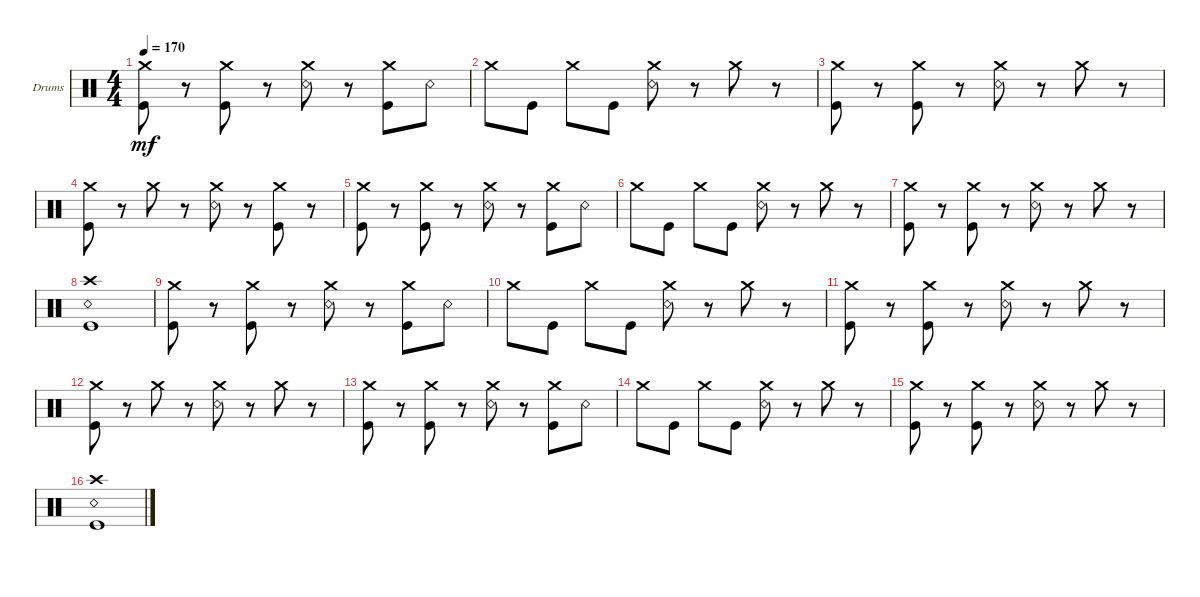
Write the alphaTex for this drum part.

\defaultSystemsLayout 4
\bracketExtendMode groupsimilarinstruments
\firstSystemTrackNameOrientation horizontal
\otherSystemsTrackNameOrientation horizontal
\track ("Drumkit" "Drums") {instrument percussion}
\staff {score}
\articulation defaults
\ts (4 4)
\tempo 170
\clef neutral
\scale
0.472222
\ks c
("Kick (hit)" "Crash medium (hit)").8{dy mf} r.8 ("Crash medium (hit)" "Kick (hit)").8 r.8 ("Snare (rim shot)" "Crash medium (hit)").8 r.8 ("Crash medium (hit)" "Kick (hit)").8 "Snare (rim shot)".8 |
\scale
0.263889 "Crash medium (hit)".8 "Kick (hit)".8 "Crash medium (hit)".8 "Kick (hit)".8 ("Snare (rim shot)" "Crash medium (hit)").8 r.8 "Crash medium (hit)".8 r.8 |
\scale
0.263889 ("Kick (hit)" "Crash medium (hit)").8 r.8 ("Crash medium (hit)" "Kick (hit)").8 r.8 ("Snare (rim shot)" "Crash medium (hit)").8 r.8 "Crash medium (hit)".8 r.8 |
\scale
0.333333 ("Kick (hit)" "Crash medium (hit)").8 r.8 "Crash medium (hit)".8 r.8 ("Snare (rim shot)" "Crash medium (hit)").8 r.8 ("Crash medium (hit)" "Kick (hit)").8 r.8 |
\scale
0.333333 ("Kick (hit)" "Crash medium (hit)").8 r.8 ("Crash medium (hit)" "Kick (hit)").8 r.8 ("Snare (rim shot)" "Crash medium (hit)").8 r.8 ("Crash medium (hit)" "Kick (hit)").8 "Snare (rim shot)".8 |
\scale
0.333333 "Crash medium (hit)".8 "Kick (hit)".8 "Crash medium (hit)".8 "Kick (hit)".8 ("Snare (rim shot)" "Crash medium (hit)").8 r.8 "Crash medium (hit)".8 r.8 |
\scale
0.333333 ("Kick (hit)" "Crash medium (hit)").8 r.8 ("Crash medium (hit)" "Kick (hit)").8 r.8 ("Snare (rim shot)" "Crash medium (hit)").8 r.8 "Crash medium (hit)".8 r.8 |
\scale
0.333333 ("Kick (hit)" "Crash high (hit)" "Snare (rim shot)").1 |
\scale
0.333333 ("Kick (hit)" "Crash medium (hit)").8 r.8 ("Crash medium (hit)" "Kick (hit)").8 r.8 ("Snare (rim shot)" "Crash medium (hit)").8 r.8 ("Crash medium (hit)" "Kick (hit)").8 "Snare (rim shot)".8 |
\scale
0.333333 "Crash medium (hit)".8 "Kick (hit)".8 "Crash medium (hit)".8 "Kick (hit)".8 ("Snare (rim shot)" "Crash medium (hit)").8 r.8 "Crash medium (hit)".8 r.8 |
\scale
0.333333 ("Kick (hit)" "Crash medium (hit)").8 r.8 ("Crash medium (hit)" "Kick (hit)").8 r.8 ("Snare (rim shot)" "Crash medium (hit)").8 r.8 "Crash medium (hit)".8 r.8 |
\scale
0.333333 ("Kick (hit)" "Crash medium (hit)").8 r.8 "Crash medium (hit)".8 r.8 ("Snare (rim shot)" "Crash medium (hit)").8 r.8 "Crash medium (hit)".8 r.8 |
\scale
0.333333 ("Kick (hit)" "Crash medium (hit)").8 r.8 ("Crash medium (hit)" "Kick (hit)").8 r.8 ("Snare (rim shot)" "Crash medium (hit)").8 r.8 ("Crash medium (hit)" "Kick (hit)").8 "Snare (rim shot)".8 |
\scale
0.333333 "Crash medium (hit)".8 "Kick (hit)".8 "Crash medium (hit)".8 "Kick (hit)".8 ("Snare (rim shot)" "Crash medium (hit)").8 r.8 "Crash medium (hit)".8 r.8 |
\scale
0.333333 ("Kick (hit)" "Crash medium (hit)").8 r.8 ("Crash medium (hit)" "Kick (hit)").8 r.8 ("Snare (rim shot)" "Crash medium (hit)").8 r.8 "Crash medium (hit)".8 r.8 |
\scale
0.333333 ("Kick (hit)" "Crash high (hit)" "Snare (rim shot)").1
